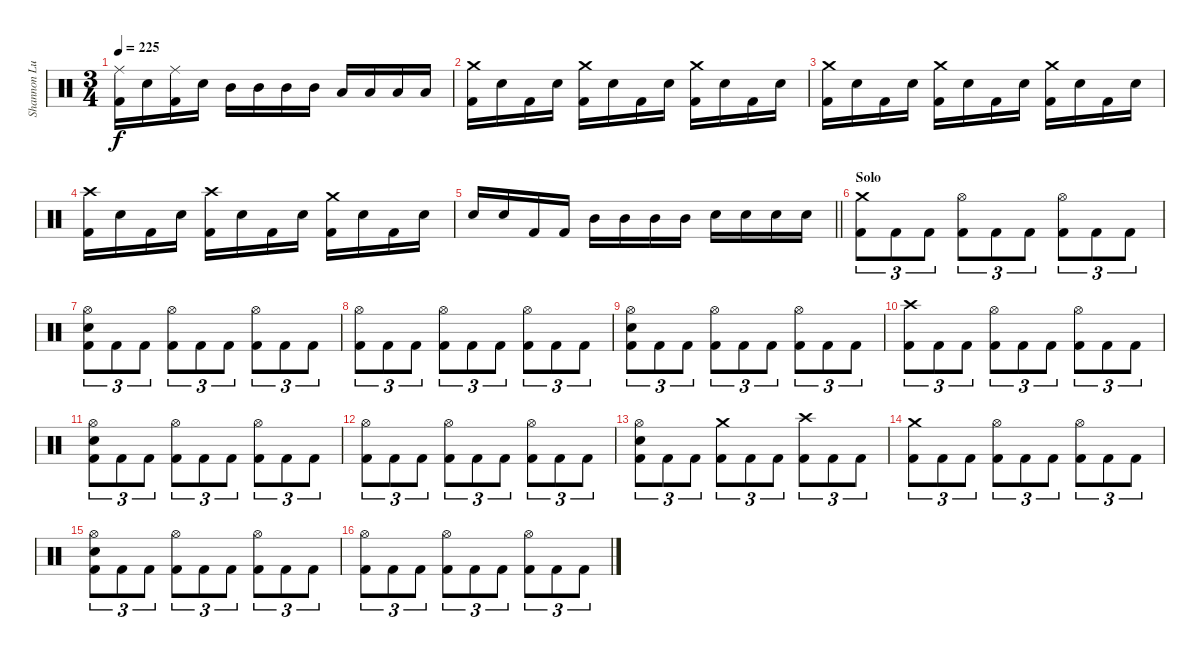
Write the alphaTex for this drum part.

\track ("Shannon Lucas" "Shannon Lu") {instrument percussion}
\staff {score}
\articulation defaults
\ts (3 4)
\tempo 225
\clef neutral
\ks c
("Ride (middle)" "Kick (hit) 2").16{dy f} "Electric Snare (hit)".16 ("Ride (middle)" "Kick (hit) 2").16 "Electric Snare (hit)".16 "Mid Tom (hit)".16 "Mid Tom (hit)".16 "Mid Tom (hit)".16 "Mid Tom (hit)".16 "Low Tom (hit)".16 "Low Tom (hit)".16 "Low Tom (hit)".16 "Low Tom (hit)".16 |
("Crash medium (hit)" "Kick (hit) 2").16 "Electric Snare (hit)".16 "Kick (hit) 2".16 "Electric Snare (hit)".16 ("Crash medium (hit)" "Kick (hit) 2").16 "Electric Snare (hit)".16 "Kick (hit) 2".16 "Electric Snare (hit)".16 ("Crash medium (hit)" "Kick (hit) 2").16 "Electric Snare (hit)".16 "Kick (hit) 2".16 "Electric Snare (hit)".16 |
("Crash medium (hit)" "Kick (hit) 2").16 "Electric Snare (hit)".16 "Kick (hit) 2".16 "Electric Snare (hit)".16 ("Crash medium (hit)" "Kick (hit) 2").16 "Electric Snare (hit)".16 "Kick (hit) 2".16 "Electric Snare (hit)".16 ("Crash medium (hit)" "Kick (hit) 2").16 "Electric Snare (hit)".16 "Kick (hit) 2".16 "Electric Snare (hit)".16 |
("Crash high (hit)" "Kick (hit) 2").16 "Electric Snare (hit)".16 "Kick (hit) 2".16 "Electric Snare (hit)".16 ("Crash high (hit)" "Kick (hit) 2").16 "Electric Snare (hit)".16 "Kick (hit) 2".16 "Electric Snare (hit)".16 ("Crash medium (hit)" "Kick (hit) 2").16 "Electric Snare (hit)".16 "Kick (hit) 2".16 "Electric Snare (hit)".16 |
\barLineRight lightlight "Electric Snare (hit)".16 "Electric Snare (hit)".16 "Kick (hit) 2".16 "Kick (hit) 2".16 "Mid Tom (hit)".16 "Mid Tom (hit)".16 "Mid Tom (hit)".16 "Mid Tom (hit)".16 "Electric Snare (hit)".16 "Electric Snare (hit)".16 "Electric Snare (hit)".16 "Electric Snare (hit)".16
|
\section ("" "Solo")
("Crash medium (hit)" "Kick (hit) 2").8{tu (3 2)} "Kick (hit) 2".8{tu (3 2)} "Kick (hit) 2".8{tu (3 2)} ("Hi-Hat (open)" "Kick (hit) 2").8{tu (3 2)} "Kick (hit) 2".8{tu (3 2)} "Kick (hit) 2".8{tu (3 2)} ("Hi-Hat (open)" "Kick (hit) 2").8{tu (3 2)} "Kick (hit) 2".8{tu (3 2)} "Kick (hit) 2".8{tu (3 2)} |
("Hi-Hat (open)" "Electric Snare (hit)" "Kick (hit) 2").8{tu (3 2)} "Kick (hit) 2".8{tu (3 2)} "Kick (hit) 2".8{tu (3 2)} ("Hi-Hat (open)" "Kick (hit) 2").8{tu (3 2)} "Kick (hit) 2".8{tu (3 2)} "Kick (hit) 2".8{tu (3 2)} ("Hi-Hat (open)" "Kick (hit) 2").8{tu (3 2)} "Kick (hit) 2".8{tu (3 2)} "Kick (hit) 2".8{tu (3 2)} |
("Hi-Hat (open)" "Kick (hit) 2").8{tu (3 2)} "Kick (hit) 2".8{tu (3 2)} "Kick (hit) 2".8{tu (3 2)} ("Hi-Hat (open)" "Kick (hit) 2").8{tu (3 2)} "Kick (hit) 2".8{tu (3 2)} "Kick (hit) 2".8{tu (3 2)} ("Hi-Hat (open)" "Kick (hit) 2").8{tu (3 2)} "Kick (hit) 2".8{tu (3 2)} "Kick (hit) 2".8{tu (3 2)} |
("Hi-Hat (open)" "Electric Snare (hit)" "Kick (hit) 2").8{tu (3 2)} "Kick (hit) 2".8{tu (3 2)} "Kick (hit) 2".8{tu (3 2)} ("Hi-Hat (open)" "Kick (hit) 2").8{tu (3 2)} "Kick (hit) 2".8{tu (3 2)} "Kick (hit) 2".8{tu (3 2)} ("Hi-Hat (open)" "Kick (hit) 2").8{tu (3 2)} "Kick (hit) 2".8{tu (3 2)} "Kick (hit) 2".8{tu (3 2)} |
("Crash high (hit)" "Kick (hit) 2").8{tu (3 2)} "Kick (hit) 2".8{tu (3 2)} "Kick (hit) 2".8{tu (3 2)} ("Hi-Hat (open)" "Kick (hit) 2").8{tu (3 2)} "Kick (hit) 2".8{tu (3 2)} "Kick (hit) 2".8{tu (3 2)} ("Hi-Hat (open)" "Kick (hit) 2").8{tu (3 2)} "Kick (hit) 2".8{tu (3 2)} "Kick (hit) 2".8{tu (3 2)} |
("Hi-Hat (open)" "Electric Snare (hit)" "Kick (hit) 2").8{tu (3 2)} "Kick (hit) 2".8{tu (3 2)} "Kick (hit) 2".8{tu (3 2)} ("Hi-Hat (open)" "Kick (hit) 2").8{tu (3 2)} "Kick (hit) 2".8{tu (3 2)} "Kick (hit) 2".8{tu (3 2)} ("Hi-Hat (open)" "Kick (hit) 2").8{tu (3 2)} "Kick (hit) 2".8{tu (3 2)} "Kick (hit) 2".8{tu (3 2)} |
("Hi-Hat (open)" "Kick (hit) 2").8{tu (3 2)} "Kick (hit) 2".8{tu (3 2)} "Kick (hit) 2".8{tu (3 2)} ("Hi-Hat (open)" "Kick (hit) 2").8{tu (3 2)} "Kick (hit) 2".8{tu (3 2)} "Kick (hit) 2".8{tu (3 2)} ("Hi-Hat (open)" "Kick (hit) 2").8{tu (3 2)} "Kick (hit) 2".8{tu (3 2)} "Kick (hit) 2".8{tu (3 2)} |
("Hi-Hat (open)" "Electric Snare (hit)" "Kick (hit) 2").8{tu (3 2)} "Kick (hit) 2".8{tu (3 2)} "Kick (hit) 2".8{tu (3 2)} ("Crash medium (hit)" "Kick (hit) 2").8{tu (3 2)} "Kick (hit) 2".8{tu (3 2)} "Kick (hit) 2".8{tu (3 2)} ("Crash high (hit)" "Kick (hit) 2").8{tu (3 2)} "Kick (hit) 2".8{tu (3 2)} "Kick (hit) 2".8{tu (3 2)} |
("Crash medium (hit)" "Kick (hit) 2").8{tu (3 2)} "Kick (hit) 2".8{tu (3 2)} "Kick (hit) 2".8{tu (3 2)} ("Hi-Hat (open)" "Kick (hit) 2").8{tu (3 2)} "Kick (hit) 2".8{tu (3 2)} "Kick (hit) 2".8{tu (3 2)} ("Hi-Hat (open)" "Kick (hit) 2").8{tu (3 2)} "Kick (hit) 2".8{tu (3 2)} "Kick (hit) 2".8{tu (3 2)} |
("Hi-Hat (open)" "Electric Snare (hit)" "Kick (hit) 2").8{tu (3 2)} "Kick (hit) 2".8{tu (3 2)} "Kick (hit) 2".8{tu (3 2)} ("Hi-Hat (open)" "Kick (hit) 2").8{tu (3 2)} "Kick (hit) 2".8{tu (3 2)} "Kick (hit) 2".8{tu (3 2)} ("Hi-Hat (open)" "Kick (hit) 2").8{tu (3 2)} "Kick (hit) 2".8{tu (3 2)} "Kick (hit) 2".8{tu (3 2)} |
("Hi-Hat (open)" "Kick (hit) 2").8{tu (3 2)} "Kick (hit) 2".8{tu (3 2)} "Kick (hit) 2".8{tu (3 2)} ("Hi-Hat (open)" "Kick (hit) 2").8{tu (3 2)} "Kick (hit) 2".8{tu (3 2)} "Kick (hit) 2".8{tu (3 2)} ("Hi-Hat (open)" "Kick (hit) 2").8{tu (3 2)} "Kick (hit) 2".8{tu (3 2)} "Kick (hit) 2".8{tu (3 2)}
